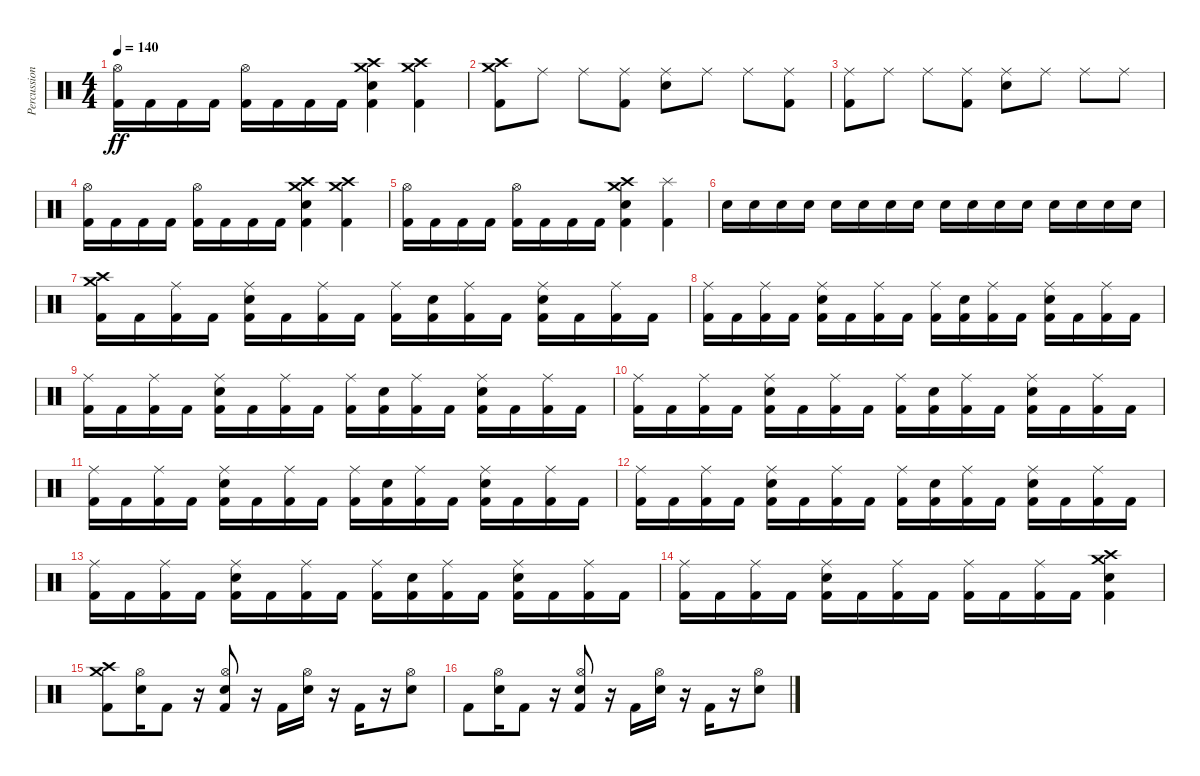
\track ("Percussion" "Percussion") {instrument percussion}
\staff {score}
\articulation defaults
\ts (4 4)
\tempo 140
\clef neutral
\ks c
("Kick (hit) 2" "Hi-Hat (open)").16{dy ff} "Kick (hit) 2".16 "Kick (hit) 2".16 "Kick (hit) 2".16 ("Kick (hit) 2" "Hi-Hat (open)").16 "Kick (hit) 2".16 "Kick (hit) 2".16 "Kick (hit) 2".16 ("Kick (hit) 2" "Electric Snare (hit)" "Crash medium (hit)" "Crash high (hit)").4 ("Kick (hit) 2" "Crash medium (hit)" "Crash high (hit)").4 |
("Kick (hit) 2" "Crash medium (hit)" "Crash high (hit)").8 "Ride (middle)".8 "Ride (middle)".8 ("Kick (hit) 2" "Ride (middle)").8 ("Electric Snare (hit)" "Ride (middle)").8 "Ride (middle)".8 "Ride (middle)".8 ("Kick (hit) 2" "Ride (middle)").8 |
("Kick (hit) 2" "Ride (middle)").8 "Ride (middle)".8 "Ride (middle)".8 ("Kick (hit) 2" "Ride (middle)").8 ("Electric Snare (hit)" "Ride (middle)").8 "Ride (middle)".8 "Ride (middle)".8 "Ride (middle)".8 |
("Kick (hit) 2" "Hi-Hat (open)").16 "Kick (hit) 2".16 "Kick (hit) 2".16 "Kick (hit) 2".16 ("Kick (hit) 2" "Hi-Hat (open)").16 "Kick (hit) 2".16 "Kick (hit) 2".16 "Kick (hit) 2".16 ("Kick (hit) 2" "Electric Snare (hit)" "Crash medium (hit)" "Crash high (hit)").4 ("Kick (hit) 2" "Crash medium (hit)" "Crash high (hit)").4 |
("Kick (hit) 2" "Hi-Hat (open)").16 "Kick (hit) 2".16 "Kick (hit) 2".16 "Kick (hit) 2".16 ("Kick (hit) 2" "Hi-Hat (open)").16 "Kick (hit) 2".16 "Kick (hit) 2".16 "Kick (hit) 2".16 ("Kick (hit) 2" "Electric Snare (hit)" "Crash medium (hit)" "Crash high (hit)").4 ("Kick (hit) 2" "Splash (hit)").4 |
"Electric Snare (hit)".16 "Electric Snare (hit)".16 "Electric Snare (hit)".16 "Electric Snare (hit)".16 "Electric Snare (hit)".16 "Electric Snare (hit)".16 "Electric Snare (hit)".16 "Electric Snare (hit)".16 "Electric Snare (hit)".16 "Electric Snare (hit)".16 "Electric Snare (hit)".16 "Electric Snare (hit)".16 "Electric Snare (hit)".16 "Electric Snare (hit)".16 "Electric Snare (hit)".16 "Electric Snare (hit)".16 |
("Kick (hit) 2" "Crash medium (hit)" "Crash high (hit)").16 "Kick (hit) 2".16 ("Kick (hit) 2" "Ride (middle)").16 "Kick (hit) 2".16 ("Kick (hit) 2" "Electric Snare (hit)" "Ride (middle)").16 "Kick (hit) 2".16 ("Kick (hit) 2" "Ride (middle)").16 "Kick (hit) 2".16 ("Kick (hit) 2" "Ride (middle)").16 ("Kick (hit) 2" "Electric Snare (hit)").16 ("Kick (hit) 2" "Ride (middle)").16 "Kick (hit) 2".16 ("Kick (hit) 2" "Electric Snare (hit)" "Ride (middle)").16 "Kick (hit) 2".16 ("Kick (hit) 2" "Ride (middle)").16 "Kick (hit) 2".16 |
("Kick (hit) 2" "Ride (middle)").16 "Kick (hit) 2".16 ("Kick (hit) 2" "Ride (middle)").16 "Kick (hit) 2".16 ("Kick (hit) 2" "Electric Snare (hit)" "Ride (middle)").16 "Kick (hit) 2".16 ("Kick (hit) 2" "Ride (middle)").16 "Kick (hit) 2".16 ("Kick (hit) 2" "Ride (middle)").16 ("Kick (hit) 2" "Electric Snare (hit)").16 ("Kick (hit) 2" "Ride (middle)").16 "Kick (hit) 2".16 ("Kick (hit) 2" "Electric Snare (hit)" "Ride (middle)").16 "Kick (hit) 2".16 ("Kick (hit) 2" "Ride (middle)").16 "Kick (hit) 2".16 |
("Kick (hit) 2" "Ride (middle)").16 "Kick (hit) 2".16 ("Kick (hit) 2" "Ride (middle)").16 "Kick (hit) 2".16 ("Kick (hit) 2" "Electric Snare (hit)" "Ride (middle)").16 "Kick (hit) 2".16 ("Kick (hit) 2" "Ride (middle)").16 "Kick (hit) 2".16 ("Kick (hit) 2" "Ride (middle)").16 ("Kick (hit) 2" "Electric Snare (hit)").16 ("Kick (hit) 2" "Ride (middle)").16 "Kick (hit) 2".16 ("Kick (hit) 2" "Electric Snare (hit)" "Ride (middle)").16 "Kick (hit) 2".16 ("Kick (hit) 2" "Ride (middle)").16 "Kick (hit) 2".16 |
("Kick (hit) 2" "Ride (middle)").16 "Kick (hit) 2".16 ("Kick (hit) 2" "Ride (middle)").16 "Kick (hit) 2".16 ("Kick (hit) 2" "Electric Snare (hit)" "Ride (middle)").16 "Kick (hit) 2".16 ("Kick (hit) 2" "Ride (middle)").16 "Kick (hit) 2".16 ("Kick (hit) 2" "Ride (middle)").16 ("Kick (hit) 2" "Electric Snare (hit)").16 ("Kick (hit) 2" "Ride (middle)").16 "Kick (hit) 2".16 ("Kick (hit) 2" "Electric Snare (hit)" "Ride (middle)").16 "Kick (hit) 2".16 ("Kick (hit) 2" "Ride (middle)").16 "Kick (hit) 2".16 |
("Kick (hit) 2" "Ride (middle)").16 "Kick (hit) 2".16 ("Kick (hit) 2" "Ride (middle)").16 "Kick (hit) 2".16 ("Kick (hit) 2" "Electric Snare (hit)" "Ride (middle)").16 "Kick (hit) 2".16 ("Kick (hit) 2" "Ride (middle)").16 "Kick (hit) 2".16 ("Kick (hit) 2" "Ride (middle)").16 ("Kick (hit) 2" "Electric Snare (hit)").16 ("Kick (hit) 2" "Ride (middle)").16 "Kick (hit) 2".16 ("Kick (hit) 2" "Electric Snare (hit)" "Ride (middle)").16 "Kick (hit) 2".16 ("Kick (hit) 2" "Ride (middle)").16 "Kick (hit) 2".16 |
("Kick (hit) 2" "Ride (middle)").16 "Kick (hit) 2".16 ("Kick (hit) 2" "Ride (middle)").16 "Kick (hit) 2".16 ("Kick (hit) 2" "Electric Snare (hit)" "Ride (middle)").16 "Kick (hit) 2".16 ("Kick (hit) 2" "Ride (middle)").16 "Kick (hit) 2".16 ("Kick (hit) 2" "Ride (middle)").16 ("Kick (hit) 2" "Electric Snare (hit)").16 ("Kick (hit) 2" "Ride (middle)").16 "Kick (hit) 2".16 ("Kick (hit) 2" "Electric Snare (hit)" "Ride (middle)").16 "Kick (hit) 2".16 ("Kick (hit) 2" "Ride (middle)").16 "Kick (hit) 2".16 |
("Kick (hit) 2" "Ride (middle)").16 "Kick (hit) 2".16 ("Kick (hit) 2" "Ride (middle)").16 "Kick (hit) 2".16 ("Kick (hit) 2" "Electric Snare (hit)" "Ride (middle)").16 "Kick (hit) 2".16 ("Kick (hit) 2" "Ride (middle)").16 "Kick (hit) 2".16 ("Kick (hit) 2" "Ride (middle)").16 ("Kick (hit) 2" "Electric Snare (hit)").16 ("Kick (hit) 2" "Ride (middle)").16 "Kick (hit) 2".16 ("Kick (hit) 2" "Electric Snare (hit)" "Ride (middle)").16 "Kick (hit) 2".16 ("Kick (hit) 2" "Ride (middle)").16 "Kick (hit) 2".16 |
("Kick (hit) 2" "Ride (middle)").16 "Kick (hit) 2".16 ("Kick (hit) 2" "Ride (middle)").16 "Kick (hit) 2".16 ("Kick (hit) 2" "Electric Snare (hit)" "Ride (middle)").16 "Kick (hit) 2".16 ("Kick (hit) 2" "Ride (middle)").16 "Kick (hit) 2".16 ("Kick (hit) 2" "Ride (middle)").16 "Kick (hit) 2".16 ("Kick (hit) 2" "Ride (middle)").16 "Kick (hit) 2".16 ("Kick (hit) 2" "Electric Snare (hit)" "Crash high (hit)" "Crash medium (hit)").4 |
("Kick (hit) 2" "Crash medium (hit)" "Crash high (hit)").8 ("Electric Snare (hit)" "Hi-Hat (open)").16 "Kick (hit) 2".8 r.16 ("Kick (hit) 2" "Electric Snare (hit)" "Hi-Hat (open)").8 r.16 "Kick (hit) 2".16 ("Electric Snare (hit)" "Hi-Hat (open)").16 r.16 "Kick (hit) 2".16 r.16 ("Electric Snare (hit)" "Hi-Hat (open)").8 |
"Kick (hit) 2".8 ("Electric Snare (hit)" "Hi-Hat (open)").16 "Kick (hit) 2".8 r.16 ("Kick (hit) 2" "Electric Snare (hit)" "Hi-Hat (open)").8 r.16 "Kick (hit) 2".16 ("Electric Snare (hit)" "Hi-Hat (open)").16 r.16 "Kick (hit) 2".16 r.16 ("Electric Snare (hit)" "Hi-Hat (open)").8
